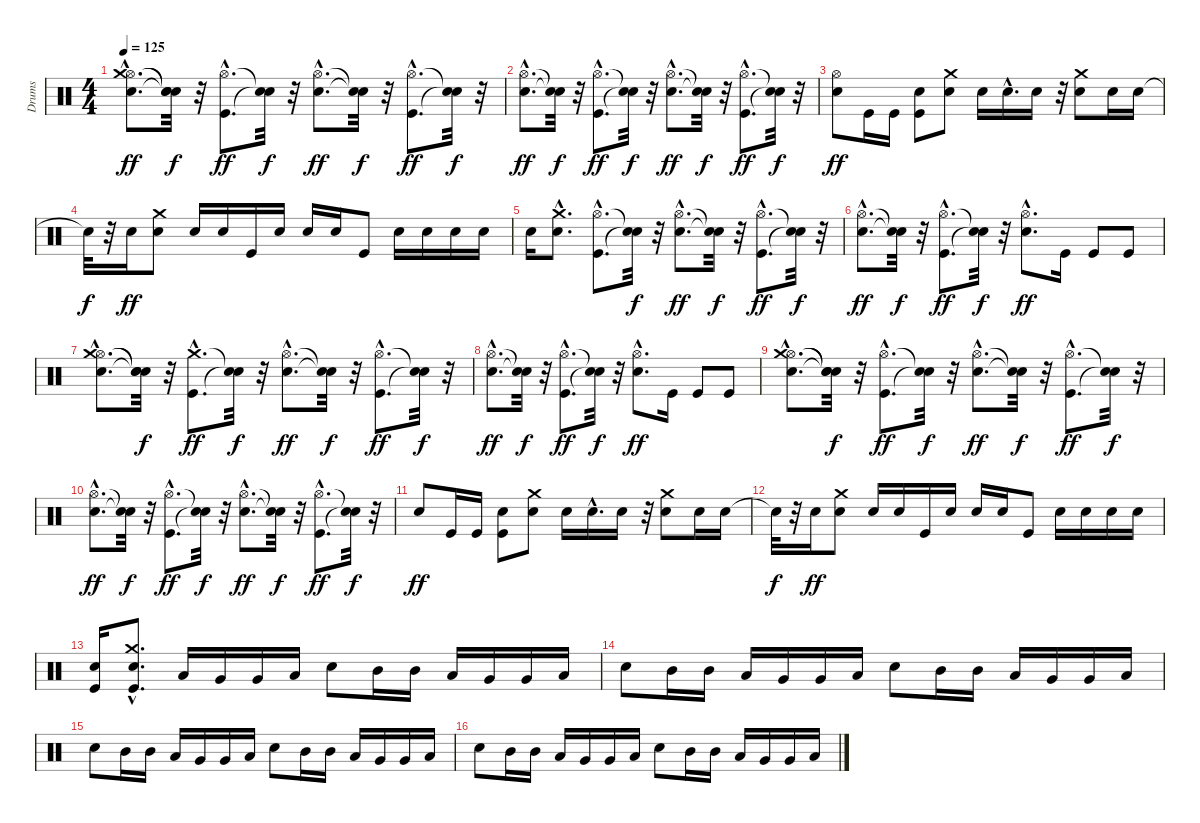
\track ("Drums" "Drums") {instrument percussion}
\staff {score}
\articulation defaults
\ts (4 4)
\tempo 125
\clef neutral
\ks c
("Electric Snare (hit)"{hac} "Hi-Hat (open)"{hac} "Crash medium (hit)"{hac}).8{d dy ff} ("Snare (hit)"{t} "Snare (hit)"{t} "Snare (hit)"{t}).32{dy f} r.32 ("Kick (hit)"{hac} "Hi-Hat (open)"{hac}).8{d dy ff} ("Snare (hit)"{t} "Snare (hit)"{t}).32{dy f} r.32 ("Electric Snare (hit)"{hac} "Hi-Hat (open)"{hac}).8{d dy ff} ("Snare (hit)"{t} "Snare (hit)"{t}).32{dy f} r.32 ("Kick (hit)"{hac} "Hi-Hat (open)"{hac}).8{d dy ff} ("Snare (hit)"{t} "Snare (hit)"{t}).32{dy f} r.32 |
("Electric Snare (hit)"{hac} "Hi-Hat (open)"{hac}).8{d dy ff} ("Snare (hit)"{t} "Snare (hit)"{t}).32{dy f} r.32 ("Kick (hit)"{hac} "Hi-Hat (open)"{hac}).8{d dy ff} ("Snare (hit)"{t} "Snare (hit)"{t}).32{dy f} r.32 ("Electric Snare (hit)"{hac} "Hi-Hat (open)"{hac}).8{d dy ff} ("Snare (hit)"{t} "Snare (hit)"{t}).32{dy f} r.32 ("Kick (hit)"{hac} "Hi-Hat (open)"{hac}).8{d dy ff} ("Snare (hit)"{t} "Snare (hit)"{t}).32{dy f} r.32 |
("Electric Snare (hit)" "Hi-Hat (open)").8{dy ff} "Kick (hit)".16 "Kick (hit)".16 ("Kick (hit)" "Electric Snare (hit)").8 ("Electric Snare (hit)" "Crash medium (hit)").8 "Electric Snare (hit)".16 "Electric Snare (hit)"{hac}.16{d} "Electric Snare (hit)".16 r.32 ("Electric Snare (hit)" "Crash medium (hit)").8 "Electric Snare (hit)".16 "Electric Snare (hit)".16 |
"Snare (hit)"{t}.32{dy f} r.32 "Electric Snare (hit)".16{dy ff} ("Electric Snare (hit)" "Crash medium (hit)").8 "Electric Snare (hit)".16 "Electric Snare (hit)".16 "Kick (hit)".16 "Electric Snare (hit)".16 "Electric Snare (hit)".16 "Electric Snare (hit)".16 "Kick (hit)".8 "Electric Snare (hit)".16 "Electric Snare (hit)".16 "Electric Snare (hit)".16 "Electric Snare (hit)".16 |
"Electric Snare (hit)".16 ("Electric Snare (hit)"{hac} "Crash medium (hit)"{hac}).8{d} ("Kick (hit)"{hac} "Hi-Hat (open)"{hac}).8{d} ("Snare (hit)"{t} "Snare (hit)"{t}).32{dy f} r.32 ("Electric Snare (hit)"{hac} "Hi-Hat (open)"{hac}).8{d dy ff} ("Snare (hit)"{t} "Snare (hit)"{t}).32{dy f} r.32 ("Kick (hit)"{hac} "Hi-Hat (open)"{hac}).8{d dy ff} ("Snare (hit)"{t} "Snare (hit)"{t}).32{dy f} r.32 |
("Electric Snare (hit)"{hac} "Hi-Hat (open)"{hac}).8{d dy ff} ("Snare (hit)"{t} "Snare (hit)"{t}).32{dy f} r.32 ("Kick (hit)"{hac} "Hi-Hat (open)"{hac}).8{d dy ff} ("Snare (hit)"{t} "Snare (hit)"{t}).32{dy f} r.32 ("Electric Snare (hit)"{hac} "Hi-Hat (open)"{hac}).8{d dy ff} "Kick (hit)".16 "Kick (hit)".8 "Kick (hit)".8 |
("Electric Snare (hit)"{hac} "Hi-Hat (open)"{hac} "Crash medium (hit)"{hac}).8{d} ("Snare (hit)"{t} "Snare (hit)"{t} "Snare (hit)"{t}).32{dy f} r.32 ("Kick (hit)"{hac} "Crash medium (hit)"{hac}).8{d dy ff} ("Snare (hit)"{t} "Snare (hit)"{t}).32{dy f} r.32 ("Electric Snare (hit)"{hac} "Hi-Hat (open)"{hac}).8{d dy ff} ("Snare (hit)"{t} "Snare (hit)"{t}).32{dy f} r.32 ("Kick (hit)"{hac} "Hi-Hat (open)"{hac}).8{d dy ff} ("Snare (hit)"{t} "Snare (hit)"{t}).32{dy f} r.32 |
("Electric Snare (hit)"{hac} "Hi-Hat (open)"{hac}).8{d dy ff} ("Snare (hit)"{t} "Snare (hit)"{t}).32{dy f} r.32 ("Kick (hit)"{hac} "Hi-Hat (open)"{hac}).8{d dy ff} ("Snare (hit)"{t} "Snare (hit)"{t}).32{dy f} r.32 ("Electric Snare (hit)"{hac} "Hi-Hat (open)"{hac}).8{d dy ff} "Kick (hit)".16 "Kick (hit)".8 "Kick (hit)".8 |
("Electric Snare (hit)"{hac} "Hi-Hat (open)"{hac} "Crash medium (hit)"{hac}).8{d} ("Snare (hit)"{t} "Snare (hit)"{t} "Snare (hit)"{t}).32{dy f} r.32 ("Kick (hit)"{hac} "Hi-Hat (open)"{hac}).8{d dy ff} ("Snare (hit)"{t} "Snare (hit)"{t}).32{dy f} r.32 ("Electric Snare (hit)"{hac} "Hi-Hat (open)"{hac}).8{d dy ff} ("Snare (hit)"{t} "Snare (hit)"{t}).32{dy f} r.32 ("Kick (hit)"{hac} "Hi-Hat (open)"{hac}).8{d dy ff} ("Snare (hit)"{t} "Snare (hit)"{t}).32{dy f} r.32 |
("Electric Snare (hit)"{hac} "Hi-Hat (open)"{hac}).8{d dy ff} ("Snare (hit)"{t} "Snare (hit)"{t}).32{dy f} r.32 ("Kick (hit)"{hac} "Hi-Hat (open)"{hac}).8{d dy ff} ("Snare (hit)"{t} "Snare (hit)"{t}).32{dy f} r.32 ("Electric Snare (hit)"{hac} "Hi-Hat (open)"{hac}).8{d dy ff} ("Snare (hit)"{t} "Snare (hit)"{t}).32{dy f} r.32 ("Kick (hit)"{hac} "Hi-Hat (open)"{hac}).8{d dy ff} ("Snare (hit)"{t} "Snare (hit)"{t}).32{dy f} r.32 |
"Electric Snare (hit)".8{dy ff} "Kick (hit)".16 "Kick (hit)".16 ("Kick (hit)" "Electric Snare (hit)").8 ("Electric Snare (hit)" "Crash medium (hit)").8 "Electric Snare (hit)".16 "Electric Snare (hit)"{hac}.16{d} "Electric Snare (hit)".16 r.32 ("Electric Snare (hit)" "Crash medium (hit)").8 "Electric Snare (hit)".16 "Electric Snare (hit)".16 |
"Snare (hit)"{t}.32{dy f} r.32 "Electric Snare (hit)".16{dy ff} ("Electric Snare (hit)" "Crash medium (hit)").8 "Electric Snare (hit)".16 "Electric Snare (hit)".16 "Kick (hit)".16 "Electric Snare (hit)".16 "Electric Snare (hit)".16 "Electric Snare (hit)".16 "Kick (hit)".8 "Electric Snare (hit)".16 "Electric Snare (hit)".16 "Electric Snare (hit)".16 "Electric Snare (hit)".16 |
("Kick (hit)" "Electric Snare (hit)").16 ("Kick (hit)"{hac} "Electric Snare (hit)"{hac} "Crash medium (hit)"{hac}).8{d} "Low Tom (hit)".16 "Very Low Tom (hit)".16 "Very Low Tom (hit)".16 "Low Floor Tom (hit)".16 "Electric Snare (hit)".8 "Mid Tom (hit)".16 "Mid Tom (hit)".16 "Low Tom (hit)".16 "Very Low Tom (hit)".16 "Very Low Tom (hit)".16 "Low Floor Tom (hit)".16 |
"Electric Snare (hit)".8 "Mid Tom (hit)".16 "Mid Tom (hit)".16 "Low Tom (hit)".16 "Very Low Tom (hit)".16 "Very Low Tom (hit)".16 "Low Floor Tom (hit)".16 "Electric Snare (hit)".8 "Mid Tom (hit)".16 "Mid Tom (hit)".16 "Low Tom (hit)".16 "Very Low Tom (hit)".16 "Very Low Tom (hit)".16 "Low Floor Tom (hit)".16 |
"Electric Snare (hit)".8 "Mid Tom (hit)".16 "Mid Tom (hit)".16 "Low Tom (hit)".16 "Very Low Tom (hit)".16 "Very Low Tom (hit)".16 "Low Floor Tom (hit)".16 "Electric Snare (hit)".8 "Mid Tom (hit)".16 "Mid Tom (hit)".16 "Low Tom (hit)".16 "Very Low Tom (hit)".16 "Very Low Tom (hit)".16 "Low Floor Tom (hit)".16 |
"Electric Snare (hit)".8 "Mid Tom (hit)".16 "Mid Tom (hit)".16 "Low Tom (hit)".16 "Very Low Tom (hit)".16 "Very Low Tom (hit)".16 "Low Floor Tom (hit)".16 "Electric Snare (hit)".8 "Mid Tom (hit)".16 "Mid Tom (hit)".16 "Low Tom (hit)".16 "Very Low Tom (hit)".16 "Very Low Tom (hit)".16 "Low Floor Tom (hit)".16
